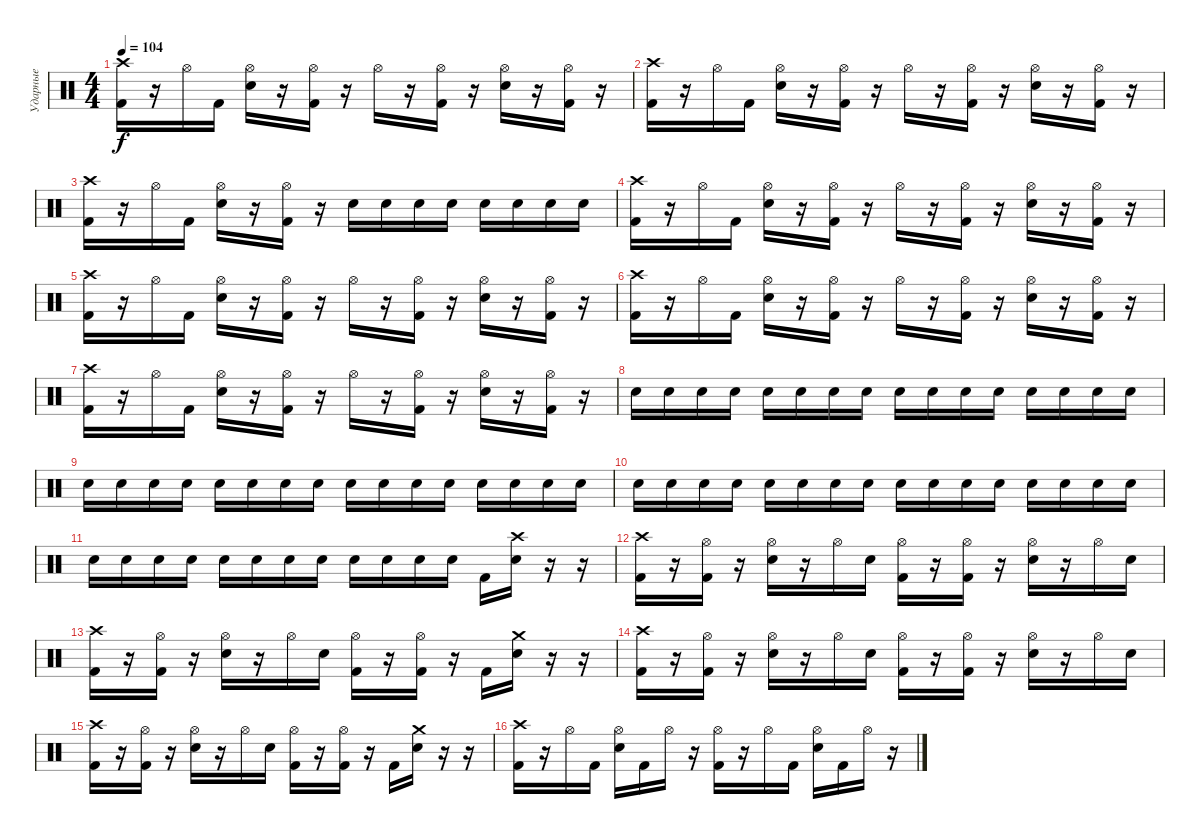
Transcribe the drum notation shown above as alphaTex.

\track ("Ударные" "Ударные") {instrument percussion}
\staff {score}
\articulation defaults
\ts (4 4)
\tempo 104
\clef neutral
\ks c
("Crash high (hit)" "Kick (hit) 2").16{dy f} r.16 "Hi-Hat (open)".16 "Kick (hit) 2".16 ("Hi-Hat (open)" "Snare (hit) 2").16 r.16 ("Hi-Hat (open)" "Kick (hit) 2").16 r.16 "Hi-Hat (open)".16 r.16 ("Hi-Hat (open)" "Kick (hit) 2").16 r.16 ("Hi-Hat (open)" "Snare (hit) 2").16 r.16 ("Hi-Hat (open)" "Kick (hit) 2").16 r.16 |
("Crash high (hit)" "Kick (hit) 2").16 r.16 "Hi-Hat (open)".16 "Kick (hit) 2".16 ("Hi-Hat (open)" "Snare (hit) 2").16 r.16 ("Hi-Hat (open)" "Kick (hit) 2").16 r.16 "Hi-Hat (open)".16 r.16 ("Hi-Hat (open)" "Kick (hit) 2").16 r.16 ("Hi-Hat (open)" "Snare (hit) 2").16 r.16 ("Hi-Hat (open)" "Kick (hit) 2").16 r.16 |
("Crash high (hit)" "Kick (hit) 2").16 r.16 "Hi-Hat (open)".16 "Kick (hit) 2".16 ("Hi-Hat (open)" "Snare (hit) 2").16 r.16 ("Hi-Hat (open)" "Kick (hit) 2").16 r.16 "Snare (hit) 2".16 "Snare (hit) 2".16 "Snare (hit) 2".16 "Snare (hit) 2".16 "Snare (hit) 2".16 "Snare (hit) 2".16 "Snare (hit) 2".16 "Snare (hit) 2".16 |
("Crash high (hit)" "Kick (hit) 2").16 r.16 "Hi-Hat (open)".16 "Kick (hit) 2".16 ("Hi-Hat (open)" "Snare (hit) 2").16 r.16 ("Hi-Hat (open)" "Kick (hit) 2").16 r.16 "Hi-Hat (open)".16 r.16 ("Hi-Hat (open)" "Kick (hit) 2").16 r.16 ("Hi-Hat (open)" "Snare (hit) 2").16 r.16 ("Hi-Hat (open)" "Kick (hit) 2").16 r.16 |
("Crash high (hit)" "Kick (hit) 2").16 r.16 "Hi-Hat (open)".16 "Kick (hit) 2".16 ("Hi-Hat (open)" "Snare (hit) 2").16 r.16 ("Hi-Hat (open)" "Kick (hit) 2").16 r.16 "Hi-Hat (open)".16 r.16 ("Hi-Hat (open)" "Kick (hit) 2").16 r.16 ("Hi-Hat (open)" "Snare (hit) 2").16 r.16 ("Hi-Hat (open)" "Kick (hit) 2").16 r.16 |
("Crash high (hit)" "Kick (hit) 2").16 r.16 "Hi-Hat (open)".16 "Kick (hit) 2".16 ("Hi-Hat (open)" "Snare (hit) 2").16 r.16 ("Hi-Hat (open)" "Kick (hit) 2").16 r.16 "Hi-Hat (open)".16 r.16 ("Hi-Hat (open)" "Kick (hit) 2").16 r.16 ("Hi-Hat (open)" "Snare (hit) 2").16 r.16 ("Hi-Hat (open)" "Kick (hit) 2").16 r.16 |
("Crash high (hit)" "Kick (hit) 2").16 r.16 "Hi-Hat (open)".16 "Kick (hit) 2".16 ("Hi-Hat (open)" "Snare (hit) 2").16 r.16 ("Hi-Hat (open)" "Kick (hit) 2").16 r.16 "Hi-Hat (open)".16 r.16 ("Hi-Hat (open)" "Kick (hit) 2").16 r.16 ("Hi-Hat (open)" "Snare (hit) 2").16 r.16 ("Hi-Hat (open)" "Kick (hit) 2").16 r.16{volume 2} |
"Snare (hit) 2".16{volume 13} "Snare (hit) 2".16 "Snare (hit) 2".16 "Snare (hit) 2".16 "Snare (hit) 2".16 "Snare (hit) 2".16 "Snare (hit) 2".16 "Snare (hit) 2".16 "Snare (hit) 2".16 "Snare (hit) 2".16 "Snare (hit) 2".16 "Snare (hit) 2".16 "Snare (hit) 2".16 "Snare (hit) 2".16 "Snare (hit) 2".16 "Snare (hit) 2".16 |
"Snare (hit) 2".16 "Snare (hit) 2".16 "Snare (hit) 2".16 "Snare (hit) 2".16 "Snare (hit) 2".16 "Snare (hit) 2".16 "Snare (hit) 2".16 "Snare (hit) 2".16 "Snare (hit) 2".16 "Snare (hit) 2".16 "Snare (hit) 2".16 "Snare (hit) 2".16 "Snare (hit) 2".16 "Snare (hit) 2".16 "Snare (hit) 2".16 "Snare (hit) 2".16 |
"Snare (hit) 2".16 "Snare (hit) 2".16 "Snare (hit) 2".16 "Snare (hit) 2".16 "Snare (hit) 2".16 "Snare (hit) 2".16 "Snare (hit) 2".16 "Snare (hit) 2".16 "Snare (hit) 2".16 "Snare (hit) 2".16 "Snare (hit) 2".16 "Snare (hit) 2".16 "Snare (hit) 2".16 "Snare (hit) 2".16 "Snare (hit) 2".16 "Snare (hit) 2".16 |
"Snare (hit) 2".16 "Snare (hit) 2".16 "Snare (hit) 2".16 "Snare (hit) 2".16 "Snare (hit) 2".16 "Snare (hit) 2".16 "Snare (hit) 2".16 "Snare (hit) 2".16 "Snare (hit) 2".16 "Snare (hit) 2".16 "Snare (hit) 2".16 "Snare (hit) 2".16 "Kick (hit) 2".16 ("Crash high (hit)" "Snare (hit) 2").16 r.16 r.16 |
("Crash high (hit)" "Kick (hit) 2").16 r.16 ("Hi-Hat (open)" "Kick (hit) 2").16 r.16 ("Hi-Hat (open)" "Snare (hit) 2").16 r.16 "Hi-Hat (open)".16 "Snare (hit) 2".16 ("Hi-Hat (open)" "Kick (hit) 2").16 r.16 ("Hi-Hat (open)" "Kick (hit) 2").16 r.16 ("Hi-Hat (open)" "Snare (hit) 2").16 r.16 "Hi-Hat (open)".16 "Snare (hit) 2".16 |
("Crash high (hit)" "Kick (hit) 2").16 r.16 ("Hi-Hat (open)" "Kick (hit) 2").16 r.16 ("Hi-Hat (open)" "Snare (hit) 2").16 r.16 "Hi-Hat (open)".16 "Snare (hit) 2".16 ("Hi-Hat (open)" "Kick (hit) 2").16 r.16 ("Hi-Hat (open)" "Kick (hit) 2").16 r.16 "Kick (hit) 2".16 ("Crash medium (hit)" "Snare (hit) 2").16 r.16 r.16 |
("Crash high (hit)" "Kick (hit) 2").16 r.16 ("Hi-Hat (open)" "Kick (hit) 2").16 r.16 ("Hi-Hat (open)" "Snare (hit) 2").16 r.16 "Hi-Hat (open)".16 "Snare (hit) 2".16 ("Hi-Hat (open)" "Kick (hit) 2").16 r.16 ("Hi-Hat (open)" "Kick (hit) 2").16 r.16 ("Hi-Hat (open)" "Snare (hit) 2").16 r.16 "Hi-Hat (open)".16 "Snare (hit) 2".16 |
("Crash high (hit)" "Kick (hit) 2").16 r.16 ("Hi-Hat (open)" "Kick (hit) 2").16 r.16 ("Hi-Hat (open)" "Snare (hit) 2").16 r.16 "Hi-Hat (open)".16 "Snare (hit) 2".16 ("Hi-Hat (open)" "Kick (hit) 2").16 r.16 ("Hi-Hat (open)" "Kick (hit) 2").16 r.16 "Kick (hit) 2".16 ("Crash medium (hit)" "Snare (hit) 2").16 r.16 r.16 |
("Crash high (hit)" "Kick (hit) 2").16 r.16 "Hi-Hat (open)".16 "Kick (hit) 2".16 ("Hi-Hat (open)" "Snare (hit) 2").16 "Kick (hit) 2".16 "Hi-Hat (open)".16 r.16 ("Hi-Hat (open)" "Kick (hit) 2").16 r.16 "Hi-Hat (open)".16 "Kick (hit) 2".16 ("Hi-Hat (open)" "Snare (hit) 2").16 "Kick (hit) 2".16 "Hi-Hat (open)".16 r.16
